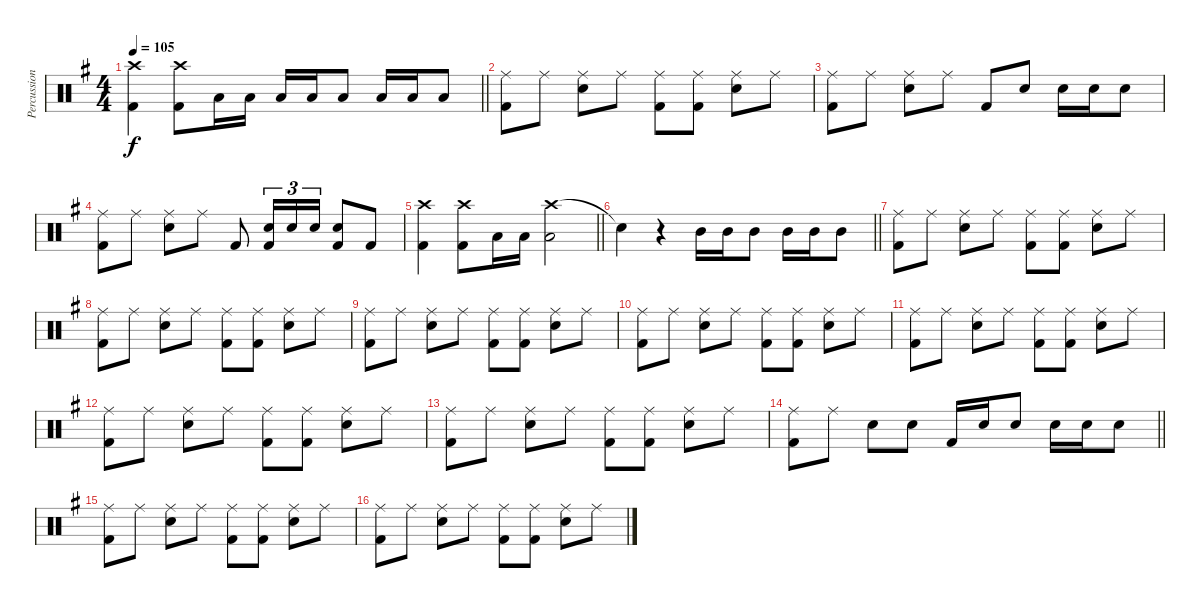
\track ("Percussion" "Percussion") {instrument percussion}
\staff {score}
\articulation defaults
\ts (4 4)
\tempo 105
\clef neutral
\barLineRight lightlight
\ks g
("Crash high (hit)" "Kick (hit) 2").4{dy f} ("Crash high (hit)" "Kick (hit) 2").8 "Low Floor Tom (hit)".16 "Low Floor Tom (hit)".16 "Low Floor Tom (hit)".16 "Low Floor Tom (hit)".16 "Low Floor Tom (hit)".8 "Low Floor Tom (hit)".16 "Low Floor Tom (hit)".16 "Low Floor Tom (hit)".8 |
("Ride (middle)" "Kick (hit) 2").8 "Ride (middle)".8 ("Ride (middle)" "Snare (hit) 2").8 "Ride (middle)".8 ("Ride (middle)" "Kick (hit) 2").8 ("Ride (middle)" "Kick (hit) 2").8 ("Ride (middle)" "Snare (hit) 2").8 "Ride (middle)".8 |
("Ride (middle)" "Kick (hit) 2").8 "Ride (middle)".8 ("Ride (middle)" "Snare (hit) 2").8 "Ride (middle)".8 "Kick (hit) 2".8 "Snare (hit) 2".8 "Snare (hit) 2".16 "Snare (hit) 2".16 "Snare (hit) 2".8 |
("Ride (middle)" "Kick (hit) 2").8 "Ride (middle)".8 ("Ride (middle)" "Snare (hit) 2").8 "Ride (middle)".8 "Kick (hit) 2".8 ("Snare (hit) 2" "Kick (hit) 2").16{tu (3 2)} "Snare (hit) 2".16{tu (3 2)} "Snare (hit) 2".16{tu (3 2)} ("Snare (hit) 2" "Kick (hit) 2").8 "Kick (hit) 2".8 |
\barLineRight lightlight
("Crash high (hit)" "Kick (hit) 2").4 ("Crash high (hit)" "Kick (hit) 2").8 "Low Floor Tom (hit)".16 "Low Floor Tom (hit)".16 ("Crash high (hit)" "Low Floor Tom (hit)").2 |
\barLineRight lightlight "Snare (hit)"{t}.4
r.4 "Mid Tom (hit)".16 "Mid Tom (hit)".16 "Mid Tom (hit)".8 "Mid Tom (hit)".16 "Mid Tom (hit)".16 "Mid Tom (hit)".8 |
("Ride (middle)" "Kick (hit) 2").8 "Ride (middle)".8 ("Ride (middle)" "Snare (hit) 2").8 "Ride (middle)".8 ("Ride (middle)" "Kick (hit) 2").8 ("Ride (middle)" "Kick (hit) 2").8 ("Ride (middle)" "Snare (hit) 2").8 "Ride (middle)".8 |
("Ride (middle)" "Kick (hit) 2").8 "Ride (middle)".8 ("Ride (middle)" "Snare (hit) 2").8 "Ride (middle)".8 ("Ride (middle)" "Kick (hit) 2").8 ("Ride (middle)" "Kick (hit) 2").8 ("Ride (middle)" "Snare (hit) 2").8 "Ride (middle)".8 |
("Ride (middle)" "Kick (hit) 2").8 "Ride (middle)".8 ("Ride (middle)" "Snare (hit) 2").8 "Ride (middle)".8 ("Ride (middle)" "Kick (hit) 2").8 ("Ride (middle)" "Kick (hit) 2").8 ("Ride (middle)" "Snare (hit) 2").8 "Ride (middle)".8 |
("Ride (middle)" "Kick (hit) 2").8 "Ride (middle)".8 ("Ride (middle)" "Snare (hit) 2").8 "Ride (middle)".8 ("Ride (middle)" "Kick (hit) 2").8 ("Ride (middle)" "Kick (hit) 2").8 ("Ride (middle)" "Snare (hit) 2").8 "Ride (middle)".8 |
("Ride (middle)" "Kick (hit) 2").8 "Ride (middle)".8 ("Ride (middle)" "Snare (hit) 2").8 "Ride (middle)".8 ("Ride (middle)" "Kick (hit) 2").8 ("Ride (middle)" "Kick (hit) 2").8 ("Ride (middle)" "Snare (hit) 2").8 "Ride (middle)".8 |
("Ride (middle)" "Kick (hit) 2").8 "Ride (middle)".8 ("Ride (middle)" "Snare (hit) 2").8 "Ride (middle)".8 ("Ride (middle)" "Kick (hit) 2").8 ("Ride (middle)" "Kick (hit) 2").8 ("Ride (middle)" "Snare (hit) 2").8 "Ride (middle)".8 |
("Ride (middle)" "Kick (hit) 2").8 "Ride (middle)".8 ("Ride (middle)" "Snare (hit) 2").8 "Ride (middle)".8 ("Ride (middle)" "Kick (hit) 2").8 ("Ride (middle)" "Kick (hit) 2").8 ("Ride (middle)" "Snare (hit) 2").8 "Ride (middle)".8 |
\barLineRight lightlight
("Ride (middle)" "Kick (hit) 2").8 "Ride (middle)".8 "Snare (hit) 2".8 "Snare (hit) 2".8 "Kick (hit) 2".16 "Snare (hit) 2".16 "Snare (hit) 2".8 "Snare (hit) 2".16 "Snare (hit) 2".16 "Snare (hit) 2".8 |
("Ride (middle)" "Kick (hit) 2").8 "Ride (middle)".8 ("Ride (middle)" "Snare (hit) 2").8 "Ride (middle)".8 ("Ride (middle)" "Kick (hit) 2").8 ("Ride (middle)" "Kick (hit) 2").8 ("Ride (middle)" "Snare (hit) 2").8 "Ride (middle)".8 |
("Ride (middle)" "Kick (hit) 2").8 "Ride (middle)".8 ("Ride (middle)" "Snare (hit) 2").8 "Ride (middle)".8 ("Ride (middle)" "Kick (hit) 2").8 ("Ride (middle)" "Kick (hit) 2").8 ("Ride (middle)" "Snare (hit) 2").8 "Ride (middle)".8
